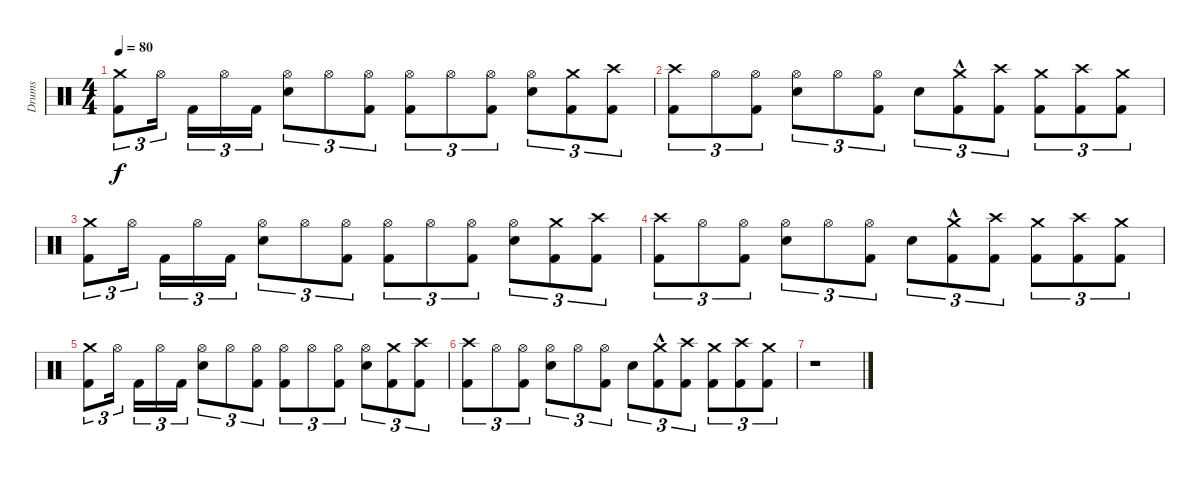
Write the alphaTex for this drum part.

\track ("Drums" "Drums") {instrument percussion}
\staff {score}
\articulation defaults
\ts (4 4)
\tempo 80
\clef neutral
\ks c
("Kick (hit) 2" "Crash medium (hit)").8{tu (3 2) dy f} "Hi-Hat (open)".16{tu (3 2)} "Kick (hit) 2".16{tu (3 2)} "Hi-Hat (open)".16{tu (3 2)} "Kick (hit) 2".16{tu (3 2)} ("Electric Snare (hit)" "Hi-Hat (open)").8{tu (3 2)} "Hi-Hat (open)".8{tu (3 2)} ("Kick (hit) 2" "Hi-Hat (open)").8{tu (3 2)} ("Kick (hit) 2" "Hi-Hat (open)").8{tu (3 2)} "Hi-Hat (open)".8{tu (3 2)} ("Kick (hit) 2" "Hi-Hat (open)").8{tu (3 2)} ("Electric Snare (hit)" "Hi-Hat (open)").8{tu (3 2)} ("Kick (hit) 2" "Crash medium (hit)").8{tu (3 2)} ("Kick (hit) 2" "Crash high (hit)").8{tu (3 2)} |
("Kick (hit) 2" "Crash high (hit)").8{tu (3 2)} "Hi-Hat (open)".8{tu (3 2)} ("Kick (hit) 2" "Hi-Hat (open)").8{tu (3 2)} ("Electric Snare (hit)" "Hi-Hat (open)").8{tu (3 2)} "Hi-Hat (open)".8{tu (3 2)} ("Kick (hit) 2" "Hi-Hat (open)").8{tu (3 2)} "Electric Snare (hit)".8{tu (3 2)} ("Kick (hit) 2" "Crash medium (hit)"{hac}).8{tu (3 2)} ("Kick (hit) 2" "Crash high (hit)").8{tu (3 2)} ("Kick (hit) 2" "Crash medium (hit)").8{tu (3 2)} ("Kick (hit) 2" "Crash high (hit)").8{tu (3 2)} ("Kick (hit) 2" "Crash medium (hit)").8{tu (3 2)} |
("Kick (hit) 2" "Crash medium (hit)").8{tu (3 2)} "Hi-Hat (open)".16{tu (3 2)} "Kick (hit) 2".16{tu (3 2)} "Hi-Hat (open)".16{tu (3 2)} "Kick (hit) 2".16{tu (3 2)} ("Electric Snare (hit)" "Hi-Hat (open)").8{tu (3 2)} "Hi-Hat (open)".8{tu (3 2)} ("Kick (hit) 2" "Hi-Hat (open)").8{tu (3 2)} ("Kick (hit) 2" "Hi-Hat (open)").8{tu (3 2)} "Hi-Hat (open)".8{tu (3 2)} ("Kick (hit) 2" "Hi-Hat (open)").8{tu (3 2)} ("Electric Snare (hit)" "Hi-Hat (open)").8{tu (3 2)} ("Kick (hit) 2" "Crash medium (hit)").8{tu (3 2)} ("Kick (hit) 2" "Crash high (hit)").8{tu (3 2)} |
("Kick (hit) 2" "Crash high (hit)").8{tu (3 2)} "Hi-Hat (open)".8{tu (3 2)} ("Kick (hit) 2" "Hi-Hat (open)").8{tu (3 2)} ("Electric Snare (hit)" "Hi-Hat (open)").8{tu (3 2)} "Hi-Hat (open)".8{tu (3 2)} ("Kick (hit) 2" "Hi-Hat (open)").8{tu (3 2)} "Electric Snare (hit)".8{tu (3 2)} ("Kick (hit) 2" "Crash medium (hit)"{hac}).8{tu (3 2)} ("Kick (hit) 2" "Crash high (hit)").8{tu (3 2)} ("Kick (hit) 2" "Crash medium (hit)").8{tu (3 2)} ("Kick (hit) 2" "Crash high (hit)").8{tu (3 2)} ("Kick (hit) 2" "Crash medium (hit)").8{tu (3 2)} |
("Kick (hit) 2" "Crash medium (hit)").8{tu (3 2)} "Hi-Hat (open)".16{tu (3 2)} "Kick (hit) 2".16{tu (3 2)} "Hi-Hat (open)".16{tu (3 2)} "Kick (hit) 2".16{tu (3 2)} ("Electric Snare (hit)" "Hi-Hat (open)").8{tu (3 2)} "Hi-Hat (open)".8{tu (3 2)} ("Kick (hit) 2" "Hi-Hat (open)").8{tu (3 2)} ("Kick (hit) 2" "Hi-Hat (open)").8{tu (3 2)} "Hi-Hat (open)".8{tu (3 2)} ("Kick (hit) 2" "Hi-Hat (open)").8{tu (3 2)} ("Electric Snare (hit)" "Hi-Hat (open)").8{tu (3 2)} ("Kick (hit) 2" "Crash medium (hit)").8{tu (3 2)} ("Kick (hit) 2" "Crash high (hit)").8{tu (3 2)} |
("Kick (hit) 2" "Crash high (hit)").8{tu (3 2)} "Hi-Hat (open)".8{tu (3 2)} ("Kick (hit) 2" "Hi-Hat (open)").8{tu (3 2)} ("Electric Snare (hit)" "Hi-Hat (open)").8{tu (3 2)} "Hi-Hat (open)".8{tu (3 2)} ("Kick (hit) 2" "Hi-Hat (open)").8{tu (3 2)} "Electric Snare (hit)".8{tu (3 2)} ("Kick (hit) 2" "Crash medium (hit)"{hac}).8{tu (3 2)} ("Kick (hit) 2" "Crash high (hit)").8{tu (3 2)} ("Kick (hit) 2" "Crash medium (hit)").8{tu (3 2)} ("Kick (hit) 2" "Crash high (hit)").8{tu (3 2)} ("Kick (hit) 2" "Crash medium (hit)").8{tu (3 2)} |
r.1
